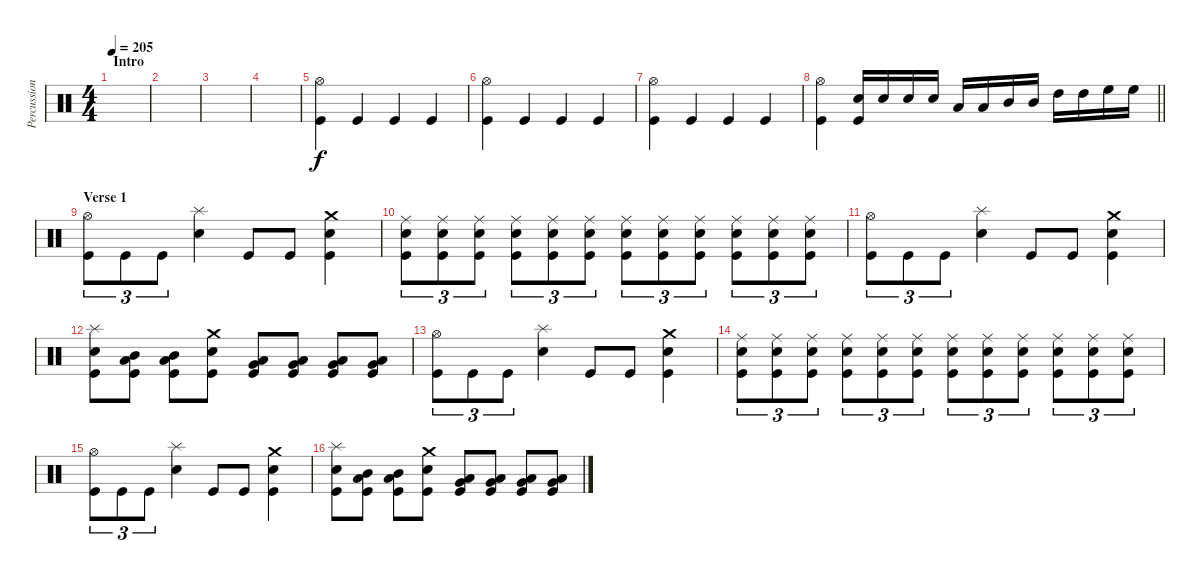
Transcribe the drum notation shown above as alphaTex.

\track ("Percussion" "Percussion") {instrument percussion}
\staff {score}
\articulation defaults
\ts (4 4)
\section ("" "Intro")
\tempo 205
\clef neutral
\ks c
|
|
|
|
("Hi-Hat (open)" "Kick (hit)").4 "Kick (hit)".4 "Kick (hit)".4 "Kick (hit)".4 |
("Hi-Hat (open)" "Kick (hit)").4 "Kick (hit)".4 "Kick (hit)".4 "Kick (hit)".4 |
("Hi-Hat (open)" "Kick (hit)").4 "Kick (hit)".4 "Kick (hit)".4 "Kick (hit)".4 |
\barLineRight lightlight
("Hi-Hat (open)" "Kick (hit)").4 ("Electric Snare (hit)" "Kick (hit)").16 "Electric Snare (hit)".16 "Electric Snare (hit)".16 "Electric Snare (hit)".16 "Low Tom (hit)".16 "Low Tom (hit)".16 "Mid Tom (hit)".16 "Mid Tom (hit)".16 "High Tom (hit)".16 "High Tom (hit)".16 "High Floor Tom (hit)".16 "High Floor Tom (hit)".16 |
\section ("" "Verse 1")
("Hi-Hat (open)" "Kick (hit)").8{tu (3 2)} "Kick (hit)".8{tu (3 2)} "Kick (hit)".8{tu (3 2)} ("Splash (hit)" "Electric Snare (hit)").4 "Kick (hit)".8 "Kick (hit)".8 ("Crash medium (hit)" "Electric Snare (hit)" "Kick (hit)").4 |
("Ride (middle)" "Electric Snare (hit)" "Kick (hit)").8{tu (3 2)} ("Ride (middle)" "Electric Snare (hit)" "Kick (hit)").8{tu (3 2)} ("Ride (middle)" "Electric Snare (hit)" "Kick (hit)").8{tu (3 2)} ("Ride (middle)" "Electric Snare (hit)" "Kick (hit)").8{tu (3 2)} ("Ride (middle)" "Electric Snare (hit)" "Kick (hit)").8{tu (3 2)} ("Ride (middle)" "Electric Snare (hit)" "Kick (hit)").8{tu (3 2)} ("Ride (middle)" "Electric Snare (hit)" "Kick (hit)").8{tu (3 2)} ("Ride (middle)" "Electric Snare (hit)" "Kick (hit)").8{tu (3 2)} ("Ride (middle)" "Electric Snare (hit)" "Kick (hit)").8{tu (3 2)} ("Ride (middle)" "Electric Snare (hit)" "Kick (hit)").8{tu (3 2)} ("Ride (middle)" "Electric Snare (hit)" "Kick (hit)").8{tu (3 2)} ("Ride (middle)" "Electric Snare (hit)" "Kick (hit)").8{tu (3 2)} |
("Hi-Hat (open)" "Kick (hit)").8{tu (3 2)} "Kick (hit)".8{tu (3 2)} "Kick (hit)".8{tu (3 2)} ("Splash (hit)" "Electric Snare (hit)").4 "Kick (hit)".8 "Kick (hit)".8 ("Crash medium (hit)" "Electric Snare (hit)" "Kick (hit)").4 |
("Splash (hit)" "Electric Snare (hit)" "Kick (hit)").8 ("Low Tom (hit)" "Mid Tom (hit)" "Kick (hit)").8 ("Low Tom (hit)" "Mid Tom (hit)" "Kick (hit)").8 ("Crash medium (hit)" "Electric Snare (hit)" "Kick (hit)").8 ("Low Tom (hit)" "Very Low Tom (hit)" "Kick (hit)").8 ("Low Tom (hit)" "Very Low Tom (hit)" "Kick (hit)").8 ("Low Tom (hit)" "Very Low Tom (hit)" "Kick (hit)").8 ("Low Tom (hit)" "Very Low Tom (hit)" "Kick (hit)").8 |
("Hi-Hat (open)" "Kick (hit)").8{tu (3 2)} "Kick (hit)".8{tu (3 2)} "Kick (hit)".8{tu (3 2)} ("Splash (hit)" "Electric Snare (hit)").4 "Kick (hit)".8 "Kick (hit)".8 ("Crash medium (hit)" "Electric Snare (hit)" "Kick (hit)").4 |
("Ride (middle)" "Electric Snare (hit)" "Kick (hit)").8{tu (3 2)} ("Ride (middle)" "Electric Snare (hit)" "Kick (hit)").8{tu (3 2)} ("Ride (middle)" "Electric Snare (hit)" "Kick (hit)").8{tu (3 2)} ("Ride (middle)" "Electric Snare (hit)" "Kick (hit)").8{tu (3 2)} ("Ride (middle)" "Electric Snare (hit)" "Kick (hit)").8{tu (3 2)} ("Ride (middle)" "Electric Snare (hit)" "Kick (hit)").8{tu (3 2)} ("Ride (middle)" "Electric Snare (hit)" "Kick (hit)").8{tu (3 2)} ("Ride (middle)" "Electric Snare (hit)" "Kick (hit)").8{tu (3 2)} ("Ride (middle)" "Electric Snare (hit)" "Kick (hit)").8{tu (3 2)} ("Ride (middle)" "Electric Snare (hit)" "Kick (hit)").8{tu (3 2)} ("Ride (middle)" "Electric Snare (hit)" "Kick (hit)").8{tu (3 2)} ("Ride (middle)" "Electric Snare (hit)" "Kick (hit)").8{tu (3 2)} |
("Hi-Hat (open)" "Kick (hit)").8{tu (3 2)} "Kick (hit)".8{tu (3 2)} "Kick (hit)".8{tu (3 2)} ("Splash (hit)" "Electric Snare (hit)").4 "Kick (hit)".8 "Kick (hit)".8 ("Crash medium (hit)" "Electric Snare (hit)" "Kick (hit)").4 |
("Splash (hit)" "Electric Snare (hit)" "Kick (hit)").8 ("Low Tom (hit)" "Mid Tom (hit)" "Kick (hit)").8 ("Low Tom (hit)" "Mid Tom (hit)" "Kick (hit)").8 ("Crash medium (hit)" "Electric Snare (hit)" "Kick (hit)").8 ("Low Tom (hit)" "Very Low Tom (hit)" "Kick (hit)").8 ("Low Tom (hit)" "Very Low Tom (hit)" "Kick (hit)").8 ("Low Tom (hit)" "Very Low Tom (hit)" "Kick (hit)").8 ("Low Tom (hit)" "Very Low Tom (hit)" "Kick (hit)").8
